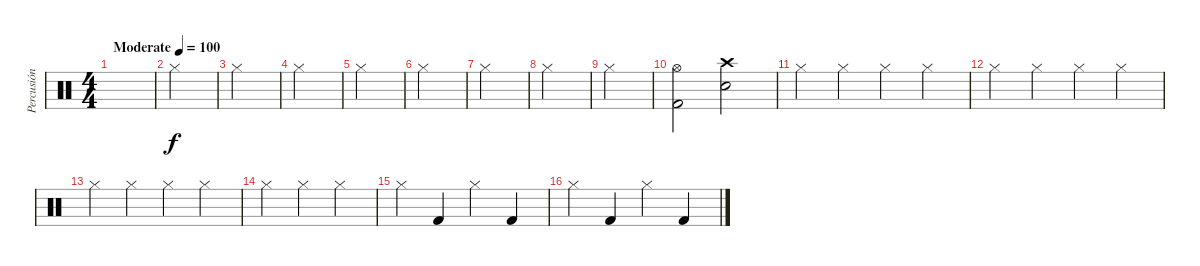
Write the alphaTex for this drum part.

\track ("Percusión" "Percusión") {instrument percussion}
\staff {score}
\articulation defaults
\ts (4 4)
\tempo (100 "Moderate")
\clef neutral
\ks c
|
"Hi-Hat (closed)".4 |
"Hi-Hat (closed)".4 |
"Hi-Hat (closed)".4 |
"Hi-Hat (closed)".4 |
"Hi-Hat (closed)".4 |
"Hi-Hat (closed)".4 |
"Hi-Hat (closed)".4 |
"Hi-Hat (closed)".4 |
("Kick (hit) 2" "Hi-Hat (open)").2 ("Electric Snare (hit)" "Crash high (hit)").2 |
"Hi-Hat (closed)".4 "Hi-Hat (closed)".4 "Hi-Hat (closed)".4 "Hi-Hat (closed)".4 |
"Hi-Hat (closed)".4 "Hi-Hat (closed)".4 "Hi-Hat (closed)".4 "Hi-Hat (closed)".4 |
"Hi-Hat (closed)".4 "Hi-Hat (closed)".4 "Hi-Hat (closed)".4 "Hi-Hat (closed)".4 |
"Hi-Hat (closed)".4 "Hi-Hat (closed)".4 "Hi-Hat (closed)".4 |
"Hi-Hat (closed)".4 "Kick (hit) 2".4 "Hi-Hat (closed)".4 "Kick (hit) 2".4 |
"Hi-Hat (closed)".4 "Kick (hit) 2".4 "Hi-Hat (closed)".4 "Kick (hit) 2".4
